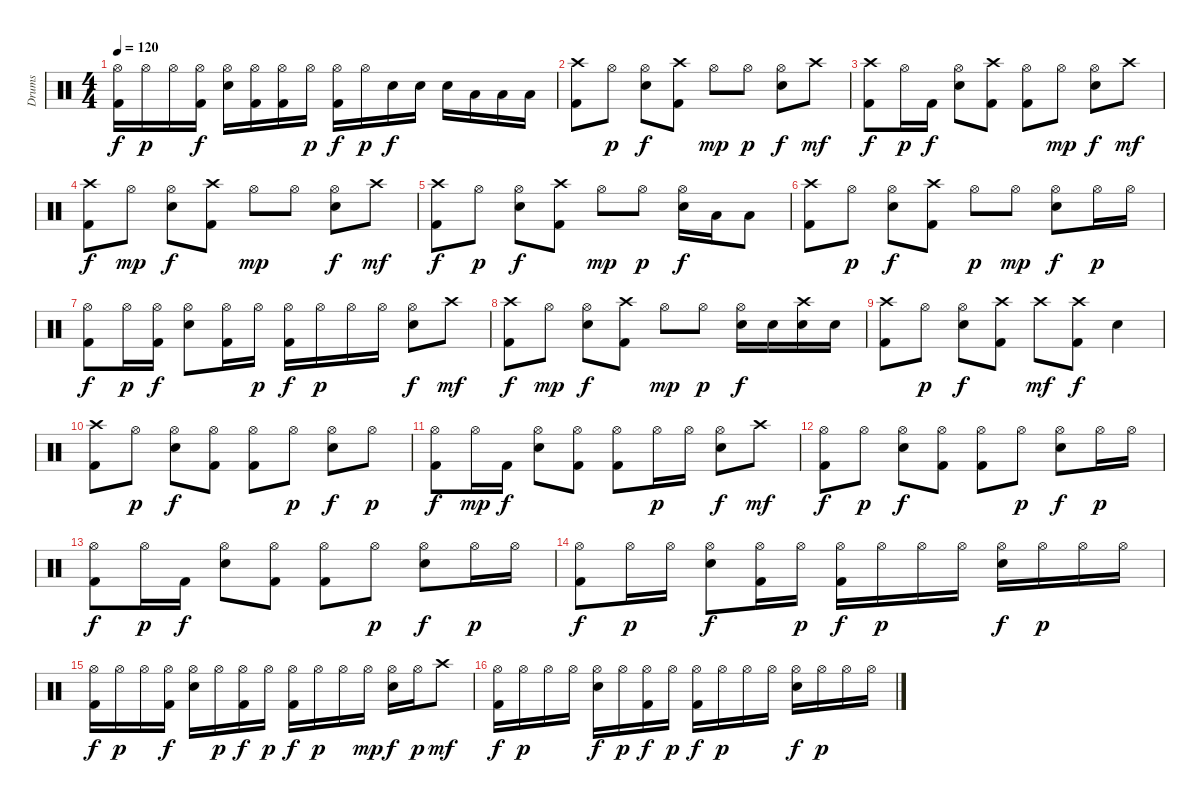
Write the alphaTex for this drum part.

\track ("Drums" "Drums") {instrument percussion}
\staff {score}
\articulation defaults
\ts (4 4)
\tempo 120
\clef neutral
\ks c
("Hi-Hat (open)" "Kick (hit) 2").16{dy f} "Hi-Hat (open)".16{dy p} "Hi-Hat (open)".16 ("Hi-Hat (open)" "Kick (hit) 2").16{dy f} ("Hi-Hat (open)" "Electric Snare (hit)").16 ("Hi-Hat (open)" "Kick (hit) 2").16 ("Hi-Hat (open)" "Kick (hit) 2").16 "Hi-Hat (open)".16{dy p} ("Hi-Hat (open)" "Kick (hit) 2").16{dy f} "Hi-Hat (open)".16{dy p} "Electric Snare (hit)".16{dy f} "Electric Snare (hit)".16 "Electric Snare (hit)".16 "Low Tom (hit)".16 "Low Tom (hit)".16 "Low Floor Tom (hit)".16 |
("Crash high (hit)" "Kick (hit) 2").8 "Hi-Hat (open)".8{dy p} ("Hi-Hat (open)" "Electric Snare (hit)").8{dy f} ("Crash high (hit)" "Kick (hit) 2").8 "Hi-Hat (open)".8{dy mp} "Hi-Hat (open)".8{dy p} ("Hi-Hat (open)" "Electric Snare (hit)").8{dy f} "Crash high (hit)".8{dy mf} |
("Crash high (hit)" "Kick (hit) 2").8{dy f} "Hi-Hat (open)".16{dy p} "Kick (hit) 2".16{dy f} ("Hi-Hat (open)" "Electric Snare (hit)").8 ("Crash high (hit)" "Kick (hit) 2").8 ("Hi-Hat (open)" "Kick (hit) 2").8 "Hi-Hat (open)".8{dy mp} ("Hi-Hat (open)" "Electric Snare (hit)").8{dy f} "Crash high (hit)".8{dy mf} |
("Crash high (hit)" "Kick (hit) 2").8{dy f} "Hi-Hat (open)".8{dy mp} ("Hi-Hat (open)" "Electric Snare (hit)").8{dy f} ("Crash high (hit)" "Kick (hit) 2").8 "Hi-Hat (open)".8{dy mp} "Hi-Hat (open)".8 ("Hi-Hat (open)" "Electric Snare (hit)").8{dy f} "Crash high (hit)".8{dy mf} |
("Crash high (hit)" "Kick (hit) 2").8{dy f} "Hi-Hat (open)".8{dy p} ("Hi-Hat (open)" "Electric Snare (hit)").8{dy f} ("Crash high (hit)" "Kick (hit) 2").8 "Hi-Hat (open)".8{dy mp} "Hi-Hat (open)".8{dy p} ("Hi-Hat (open)" "Electric Snare (hit)").16{dy f} "Low Tom (hit)".16 "Low Floor Tom (hit)".8 |
("Crash high (hit)" "Kick (hit) 2").8 "Hi-Hat (open)".8{dy p} ("Hi-Hat (open)" "Electric Snare (hit)").8{dy f} ("Crash high (hit)" "Kick (hit) 2").8 "Hi-Hat (open)".8{dy p} "Hi-Hat (open)".8{dy mp} ("Hi-Hat (open)" "Electric Snare (hit)").8{dy f} "Hi-Hat (open)".16{dy p} "Hi-Hat (open)".16 |
("Hi-Hat (open)" "Kick (hit) 2").8{dy f} "Hi-Hat (open)".16{dy p} ("Hi-Hat (open)" "Kick (hit) 2").16{dy f} ("Hi-Hat (open)" "Electric Snare (hit)").8 ("Hi-Hat (open)" "Kick (hit) 2").16 "Hi-Hat (open)".16{dy p} ("Hi-Hat (open)" "Kick (hit) 2").16{dy f} "Hi-Hat (open)".16{dy p} "Hi-Hat (open)".16 "Hi-Hat (open)".16 ("Hi-Hat (open)" "Electric Snare (hit)").8{dy f} "Crash high (hit)".8{dy mf} |
("Crash high (hit)" "Kick (hit) 2").8{dy f} "Hi-Hat (open)".8{dy mp} ("Hi-Hat (open)" "Electric Snare (hit)").8{dy f} ("Crash high (hit)" "Kick (hit) 2").8 "Hi-Hat (open)".8{dy mp} "Hi-Hat (open)".8{dy p} ("Hi-Hat (open)" "Electric Snare (hit)").16{dy f} "Electric Snare (hit)".16 ("Crash high (hit)" "Electric Snare (hit)").16 "Electric Snare (hit)".16 |
("Crash high (hit)" "Kick (hit) 2").8 "Hi-Hat (open)".8{dy p} ("Hi-Hat (open)" "Electric Snare (hit)").8{dy f} ("Crash high (hit)" "Kick (hit) 2").8 "Crash high (hit)".8{dy mf} ("Crash high (hit)" "Kick (hit) 2").8{dy f} "Electric Snare (hit)".4 |
("Crash high (hit)" "Kick (hit) 2").8 "Hi-Hat (open)".8{dy p} ("Hi-Hat (open)" "Electric Snare (hit)").8{dy f} ("Hi-Hat (open)" "Kick (hit) 2").8 ("Hi-Hat (open)" "Kick (hit) 2").8 "Hi-Hat (open)".8{dy p} ("Hi-Hat (open)" "Electric Snare (hit)").8{dy f} "Hi-Hat (open)".8{dy p} |
("Hi-Hat (open)" "Kick (hit) 2").8{dy f} "Hi-Hat (open)".16{dy mp} "Kick (hit) 2".16{dy f} ("Hi-Hat (open)" "Electric Snare (hit)").8 ("Hi-Hat (open)" "Kick (hit) 2").8 ("Hi-Hat (open)" "Kick (hit) 2").8 "Hi-Hat (open)".16{dy p} "Hi-Hat (open)".16 ("Hi-Hat (open)" "Electric Snare (hit)").8{dy f} "Crash high (hit)".8{dy mf} |
("Hi-Hat (open)" "Kick (hit) 2").8{dy f} "Hi-Hat (open)".8{dy p} ("Hi-Hat (open)" "Electric Snare (hit)").8{dy f} ("Hi-Hat (open)" "Kick (hit) 2").8 ("Hi-Hat (open)" "Kick (hit) 2").8 "Hi-Hat (open)".8{dy p} ("Hi-Hat (open)" "Electric Snare (hit)").8{dy f} "Hi-Hat (open)".16{dy p} "Hi-Hat (open)".16 |
("Hi-Hat (open)" "Kick (hit) 2").8{dy f} "Hi-Hat (open)".16{dy p} "Kick (hit) 2".16{dy f} ("Hi-Hat (open)" "Electric Snare (hit)").8 ("Hi-Hat (open)" "Kick (hit) 2").8 ("Hi-Hat (open)" "Kick (hit) 2").8 "Hi-Hat (open)".8{dy p} ("Hi-Hat (open)" "Electric Snare (hit)").8{dy f} "Hi-Hat (open)".16{dy p} "Hi-Hat (open)".16 |
("Hi-Hat (open)" "Kick (hit) 2").8{dy f} "Hi-Hat (open)".16{dy p} "Hi-Hat (open)".16 ("Hi-Hat (open)" "Electric Snare (hit)").8{dy f} ("Hi-Hat (open)" "Kick (hit) 2").16 "Hi-Hat (open)".16{dy p} ("Hi-Hat (open)" "Kick (hit) 2").16{dy f} "Hi-Hat (open)".16{dy p} "Hi-Hat (open)".16 "Hi-Hat (open)".16 ("Hi-Hat (open)" "Electric Snare (hit)").16{dy f} "Hi-Hat (open)".16{dy p} "Hi-Hat (open)".16 "Hi-Hat (open)".16 |
("Hi-Hat (open)" "Kick (hit) 2").16{dy f} "Hi-Hat (open)".16{dy p} "Hi-Hat (open)".16 ("Hi-Hat (open)" "Kick (hit) 2").16{dy f} ("Hi-Hat (open)" "Electric Snare (hit)").16 "Hi-Hat (open)".16{dy p} ("Hi-Hat (open)" "Kick (hit) 2").16{dy f} "Hi-Hat (open)".16{dy p} ("Hi-Hat (open)" "Kick (hit) 2").16{dy f} "Hi-Hat (open)".16{dy p} "Hi-Hat (open)".16 "Hi-Hat (open)".16{dy mp} ("Hi-Hat (open)" "Electric Snare (hit)").16{dy f} "Hi-Hat (open)".16{dy p} "Crash high (hit)".8{dy mf} |
("Hi-Hat (open)" "Kick (hit) 2").16{dy f} "Hi-Hat (open)".16{dy p} "Hi-Hat (open)".16 "Hi-Hat (open)".16 ("Hi-Hat (open)" "Electric Snare (hit)").16{dy f} "Hi-Hat (open)".16{dy p} ("Hi-Hat (open)" "Kick (hit) 2").16{dy f} "Hi-Hat (open)".16{dy p} ("Hi-Hat (open)" "Kick (hit) 2").16{dy f} "Hi-Hat (open)".16{dy p} "Hi-Hat (open)".16 "Hi-Hat (open)".16 ("Hi-Hat (open)" "Electric Snare (hit)").16{dy f} "Hi-Hat (open)".16{dy p} "Hi-Hat (open)".16 "Hi-Hat (open)".16
